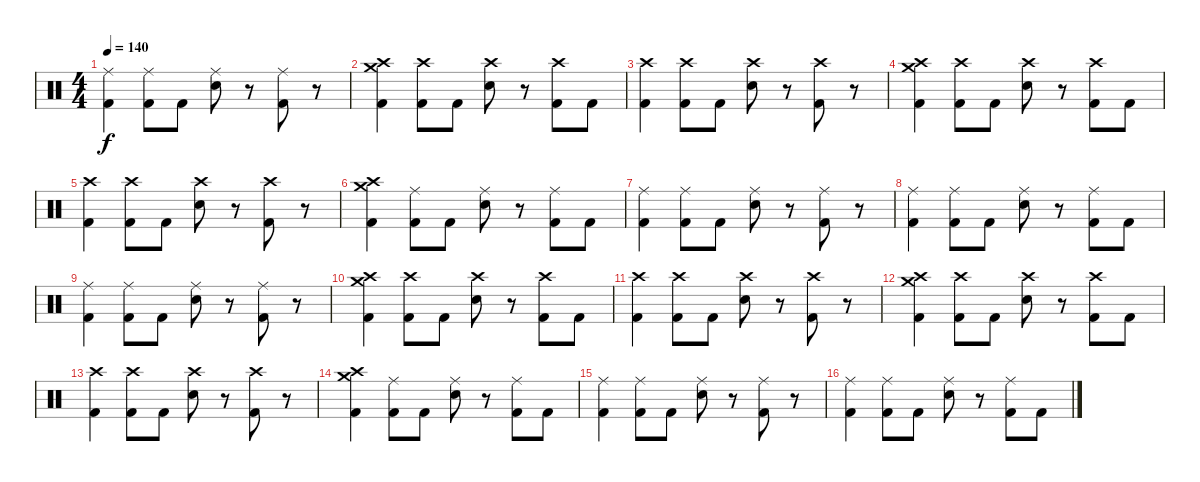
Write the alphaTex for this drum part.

\track "" {instrument percussion}
\staff {score}
\articulation defaults
\ts (4 4)
\tempo 140
\clef neutral
\ks c
("Kick (hit) 2" "Ride (middle)").4{dy f} ("Kick (hit) 2" "Ride (middle)").8 "Kick (hit) 2".8 ("Snare (hit) 2" "Ride (middle)").8 r.8 ("Kick (hit) 2" "Ride (middle)").8 r.8 |
("Kick (hit) 2" "Crash high (hit)" "Crash medium (hit)").4 ("Kick (hit) 2" "Crash high (hit)").8 "Kick (hit) 2".8 ("Snare (hit) 2" "Crash high (hit)").8 r.8 ("Kick (hit) 2" "Crash high (hit)").8 "Kick (hit) 2".8 |
("Kick (hit) 2" "Crash high (hit)").4 ("Kick (hit) 2" "Crash high (hit)").8 "Kick (hit) 2".8 ("Snare (hit) 2" "Crash high (hit)").8 r.8 ("Kick (hit) 2" "Crash high (hit)").8 r.8 |
("Kick (hit) 2" "Crash high (hit)" "Crash medium (hit)").4 ("Kick (hit) 2" "Crash high (hit)").8 "Kick (hit) 2".8 ("Snare (hit) 2" "Crash high (hit)").8 r.8 ("Kick (hit) 2" "Crash high (hit)").8 "Kick (hit) 2".8 |
("Kick (hit) 2" "Crash high (hit)").4 ("Kick (hit) 2" "Crash high (hit)").8 "Kick (hit) 2".8 ("Snare (hit) 2" "Crash high (hit)").8 r.8 ("Kick (hit) 2" "Crash high (hit)").8 r.8 |
("Kick (hit) 2" "Crash high (hit)" "Crash medium (hit)").4 ("Kick (hit) 2" "Ride (middle)").8 "Kick (hit) 2".8 ("Snare (hit) 2" "Ride (middle)").8 r.8 ("Kick (hit) 2" "Ride (middle)").8 "Kick (hit) 2".8 |
("Kick (hit) 2" "Ride (middle)").4 ("Kick (hit) 2" "Ride (middle)").8 "Kick (hit) 2".8 ("Snare (hit) 2" "Ride (middle)").8 r.8 ("Kick (hit) 2" "Ride (middle)").8 r.8 |
("Kick (hit) 2" "Ride (middle)").4 ("Kick (hit) 2" "Ride (middle)").8 "Kick (hit) 2".8 ("Snare (hit) 2" "Ride (middle)").8 r.8 ("Kick (hit) 2" "Ride (middle)").8 "Kick (hit) 2".8 |
("Kick (hit) 2" "Ride (middle)").4 ("Kick (hit) 2" "Ride (middle)").8 "Kick (hit) 2".8 ("Snare (hit) 2" "Ride (middle)").8 r.8 ("Kick (hit) 2" "Ride (middle)").8 r.8 |
("Kick (hit) 2" "Crash high (hit)" "Crash medium (hit)").4 ("Kick (hit) 2" "Crash high (hit)").8 "Kick (hit) 2".8 ("Snare (hit) 2" "Crash high (hit)").8 r.8 ("Kick (hit) 2" "Crash high (hit)").8 "Kick (hit) 2".8 |
("Kick (hit) 2" "Crash high (hit)").4 ("Kick (hit) 2" "Crash high (hit)").8 "Kick (hit) 2".8 ("Snare (hit) 2" "Crash high (hit)").8 r.8 ("Kick (hit) 2" "Crash high (hit)").8 r.8 |
("Kick (hit) 2" "Crash high (hit)" "Crash medium (hit)").4 ("Kick (hit) 2" "Crash high (hit)").8 "Kick (hit) 2".8 ("Snare (hit) 2" "Crash high (hit)").8 r.8 ("Kick (hit) 2" "Crash high (hit)").8 "Kick (hit) 2".8 |
("Kick (hit) 2" "Crash high (hit)").4 ("Kick (hit) 2" "Crash high (hit)").8 "Kick (hit) 2".8 ("Snare (hit) 2" "Crash high (hit)").8 r.8 ("Kick (hit) 2" "Crash high (hit)").8 r.8 |
("Kick (hit) 2" "Crash high (hit)" "Crash medium (hit)").4 ("Kick (hit) 2" "Ride (middle)").8 "Kick (hit) 2".8 ("Snare (hit) 2" "Ride (middle)").8 r.8 ("Kick (hit) 2" "Ride (middle)").8 "Kick (hit) 2".8 |
("Kick (hit) 2" "Ride (middle)").4 ("Kick (hit) 2" "Ride (middle)").8 "Kick (hit) 2".8 ("Snare (hit) 2" "Ride (middle)").8 r.8 ("Kick (hit) 2" "Ride (middle)").8 r.8 |
("Kick (hit) 2" "Ride (middle)").4 ("Kick (hit) 2" "Ride (middle)").8 "Kick (hit) 2".8 ("Snare (hit) 2" "Ride (middle)").8 r.8 ("Kick (hit) 2" "Ride (middle)").8 "Kick (hit) 2".8
